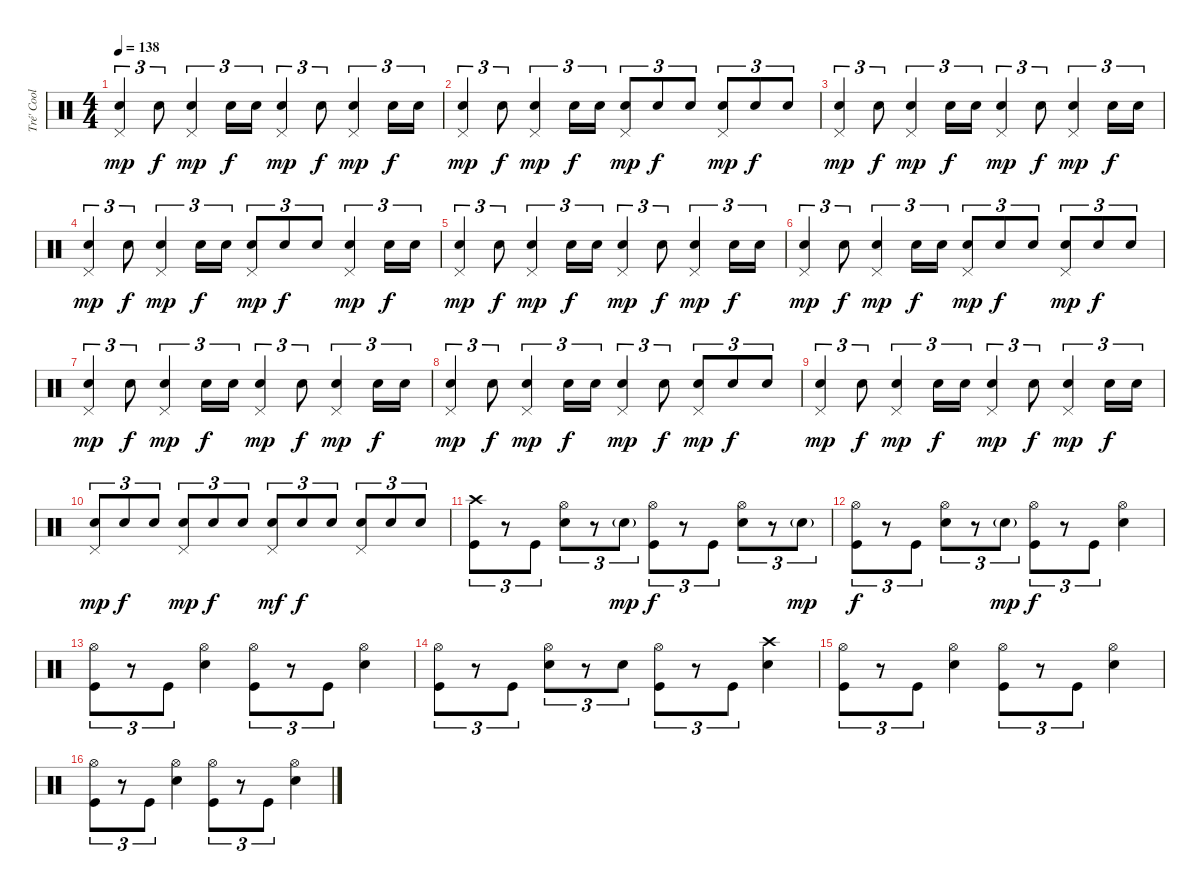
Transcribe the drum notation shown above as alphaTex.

\track ("Tré' Cool" "Tré' Cool") {instrument percussion}
\staff {score}
\articulation defaults
\ts (4 4)
\tempo 138
\clef neutral
\ks c
("Electric Snare (hit)" "Pedal Hi-Hat (hit)").4{tu (3 2) dy mp} "Electric Snare (hit)".8{tu (3 2) dy f} ("Electric Snare (hit)" "Pedal Hi-Hat (hit)").4{tu (3 2) dy mp} "Electric Snare (hit)".16{tu (3 2) dy f} "Electric Snare (hit)".16{tu (3 2)} ("Electric Snare (hit)" "Pedal Hi-Hat (hit)").4{tu (3 2) dy mp} "Electric Snare (hit)".8{tu (3 2) dy f} ("Electric Snare (hit)" "Pedal Hi-Hat (hit)").4{tu (3 2) dy mp} "Electric Snare (hit)".16{tu (3 2) dy f} "Electric Snare (hit)".16{tu (3 2)} |
("Electric Snare (hit)" "Pedal Hi-Hat (hit)").4{tu (3 2) dy mp} "Electric Snare (hit)".8{tu (3 2) dy f} ("Electric Snare (hit)" "Pedal Hi-Hat (hit)").4{tu (3 2) dy mp} "Electric Snare (hit)".16{tu (3 2) dy f} "Electric Snare (hit)".16{tu (3 2)} ("Electric Snare (hit)" "Pedal Hi-Hat (hit)").8{tu (3 2) dy mp} "Electric Snare (hit)".8{tu (3 2) dy f} "Electric Snare (hit)".8{tu (3 2)} ("Electric Snare (hit)" "Pedal Hi-Hat (hit)").8{tu (3 2) dy mp} "Electric Snare (hit)".8{tu (3 2) dy f} "Electric Snare (hit)".8{tu (3 2)} |
("Electric Snare (hit)" "Pedal Hi-Hat (hit)").4{tu (3 2) dy mp} "Electric Snare (hit)".8{tu (3 2) dy f} ("Electric Snare (hit)" "Pedal Hi-Hat (hit)").4{tu (3 2) dy mp} "Electric Snare (hit)".16{tu (3 2) dy f} "Electric Snare (hit)".16{tu (3 2)} ("Electric Snare (hit)" "Pedal Hi-Hat (hit)").4{tu (3 2) dy mp} "Electric Snare (hit)".8{tu (3 2) dy f} ("Electric Snare (hit)" "Pedal Hi-Hat (hit)").4{tu (3 2) dy mp} "Electric Snare (hit)".16{tu (3 2) dy f} "Electric Snare (hit)".16{tu (3 2)} |
("Electric Snare (hit)" "Pedal Hi-Hat (hit)").4{tu (3 2) dy mp} "Electric Snare (hit)".8{tu (3 2) dy f} ("Electric Snare (hit)" "Pedal Hi-Hat (hit)").4{tu (3 2) dy mp} "Electric Snare (hit)".16{tu (3 2) dy f} "Electric Snare (hit)".16{tu (3 2)} ("Electric Snare (hit)" "Pedal Hi-Hat (hit)").8{tu (3 2) dy mp} "Electric Snare (hit)".8{tu (3 2) dy f} "Electric Snare (hit)".8{tu (3 2)} ("Electric Snare (hit)" "Pedal Hi-Hat (hit)").4{tu (3 2) dy mp} "Electric Snare (hit)".16{tu (3 2) dy f} "Electric Snare (hit)".16{tu (3 2)} |
("Electric Snare (hit)" "Pedal Hi-Hat (hit)").4{tu (3 2) dy mp} "Electric Snare (hit)".8{tu (3 2) dy f} ("Electric Snare (hit)" "Pedal Hi-Hat (hit)").4{tu (3 2) dy mp} "Electric Snare (hit)".16{tu (3 2) dy f} "Electric Snare (hit)".16{tu (3 2)} ("Electric Snare (hit)" "Pedal Hi-Hat (hit)").4{tu (3 2) dy mp} "Electric Snare (hit)".8{tu (3 2) dy f} ("Electric Snare (hit)" "Pedal Hi-Hat (hit)").4{tu (3 2) dy mp} "Electric Snare (hit)".16{tu (3 2) dy f} "Electric Snare (hit)".16{tu (3 2)} |
("Electric Snare (hit)" "Pedal Hi-Hat (hit)").4{tu (3 2) dy mp} "Electric Snare (hit)".8{tu (3 2) dy f} ("Electric Snare (hit)" "Pedal Hi-Hat (hit)").4{tu (3 2) dy mp} "Electric Snare (hit)".16{tu (3 2) dy f} "Electric Snare (hit)".16{tu (3 2)} ("Electric Snare (hit)" "Pedal Hi-Hat (hit)").8{tu (3 2) dy mp} "Electric Snare (hit)".8{tu (3 2) dy f} "Electric Snare (hit)".8{tu (3 2)} ("Electric Snare (hit)" "Pedal Hi-Hat (hit)").8{tu (3 2) dy mp} "Electric Snare (hit)".8{tu (3 2) dy f} "Electric Snare (hit)".8{tu (3 2)} |
("Electric Snare (hit)" "Pedal Hi-Hat (hit)").4{tu (3 2) dy mp} "Electric Snare (hit)".8{tu (3 2) dy f} ("Electric Snare (hit)" "Pedal Hi-Hat (hit)").4{tu (3 2) dy mp} "Electric Snare (hit)".16{tu (3 2) dy f} "Electric Snare (hit)".16{tu (3 2)} ("Electric Snare (hit)" "Pedal Hi-Hat (hit)").4{tu (3 2) dy mp} "Electric Snare (hit)".8{tu (3 2) dy f} ("Electric Snare (hit)" "Pedal Hi-Hat (hit)").4{tu (3 2) dy mp} "Electric Snare (hit)".16{tu (3 2) dy f} "Electric Snare (hit)".16{tu (3 2)} |
("Electric Snare (hit)" "Pedal Hi-Hat (hit)").4{tu (3 2) dy mp} "Electric Snare (hit)".8{tu (3 2) dy f} ("Electric Snare (hit)" "Pedal Hi-Hat (hit)").4{tu (3 2) dy mp} "Electric Snare (hit)".16{tu (3 2) dy f} "Electric Snare (hit)".16{tu (3 2)} ("Electric Snare (hit)" "Pedal Hi-Hat (hit)").4{tu (3 2) dy mp} "Electric Snare (hit)".8{tu (3 2) dy f} ("Electric Snare (hit)" "Pedal Hi-Hat (hit)").8{tu (3 2) dy mp} "Electric Snare (hit)".8{tu (3 2) dy f} "Electric Snare (hit)".8{tu (3 2)} |
("Electric Snare (hit)" "Pedal Hi-Hat (hit)").4{tu (3 2) dy mp} "Electric Snare (hit)".8{tu (3 2) dy f} ("Electric Snare (hit)" "Pedal Hi-Hat (hit)").4{tu (3 2) dy mp} "Electric Snare (hit)".16{tu (3 2) dy f} "Electric Snare (hit)".16{tu (3 2)} ("Electric Snare (hit)" "Pedal Hi-Hat (hit)").4{tu (3 2) dy mp} "Electric Snare (hit)".8{tu (3 2) dy f} ("Electric Snare (hit)" "Pedal Hi-Hat (hit)").4{tu (3 2) dy mp} "Electric Snare (hit)".16{tu (3 2) dy f} "Electric Snare (hit)".16{tu (3 2)} |
("Electric Snare (hit)" "Pedal Hi-Hat (hit)").8{tu (3 2) dy mp} "Electric Snare (hit)".8{tu (3 2) dy f} "Electric Snare (hit)".8{tu (3 2)} ("Electric Snare (hit)" "Pedal Hi-Hat (hit)").8{tu (3 2) dy mp} "Electric Snare (hit)".8{tu (3 2) dy f} "Electric Snare (hit)".8{tu (3 2)} ("Electric Snare (hit)" "Pedal Hi-Hat (hit)").8{tu (3 2) dy mf} "Electric Snare (hit)".8{tu (3 2) dy f} "Electric Snare (hit)".8{tu (3 2)} ("Electric Snare (hit)" "Pedal Hi-Hat (hit)").8{tu (3 2)} "Electric Snare (hit)".8{tu (3 2)} "Electric Snare (hit)".8{tu (3 2)} |
("Crash high (hit)" "Kick (hit)").8{tu (3 2)} r.8{tu (3 2)} "Kick (hit)".8{tu (3 2)} ("Hi-Hat (open)" "Electric Snare (hit)").8{tu (3 2)} r.8{tu (3 2)} "Electric Snare (hit)"{g}.8{tu (3 2) dy mp} ("Hi-Hat (open)" "Kick (hit)").8{tu (3 2) dy f} r.8{tu (3 2)} "Kick (hit)".8{tu (3 2)} ("Hi-Hat (open)" "Electric Snare (hit)").8{tu (3 2)} r.8{tu (3 2)} "Electric Snare (hit)"{g}.8{tu (3 2) dy mp} |
("Hi-Hat (open)" "Kick (hit)").8{tu (3 2) dy f} r.8{tu (3 2)} "Kick (hit)".8{tu (3 2)} ("Hi-Hat (open)" "Electric Snare (hit)").8{tu (3 2)} r.8{tu (3 2)} "Electric Snare (hit)"{g}.8{tu (3 2) dy mp} ("Hi-Hat (open)" "Kick (hit)").8{tu (3 2) dy f} r.8{tu (3 2)} "Kick (hit)".8{tu (3 2)} ("Hi-Hat (open)" "Electric Snare (hit)").4 |
("Hi-Hat (open)" "Kick (hit)").8{tu (3 2)} r.8{tu (3 2)} "Kick (hit)".8{tu (3 2)} ("Hi-Hat (open)" "Electric Snare (hit)").4 ("Hi-Hat (open)" "Kick (hit)").8{tu (3 2)} r.8{tu (3 2)} "Kick (hit)".8{tu (3 2)} ("Hi-Hat (open)" "Electric Snare (hit)").4 |
("Hi-Hat (open)" "Kick (hit)").8{tu (3 2)} r.8{tu (3 2)} "Kick (hit)".8{tu (3 2)} ("Hi-Hat (open)" "Electric Snare (hit)").8{tu (3 2)} r.8{tu (3 2)} "Electric Snare (hit)".8{tu (3 2)} ("Hi-Hat (open)" "Kick (hit)").8{tu (3 2)} r.8{tu (3 2)} "Kick (hit)".8{tu (3 2)} ("Crash high (hit)" "Electric Snare (hit)").4 |
("Hi-Hat (open)" "Kick (hit)").8{tu (3 2)} r.8{tu (3 2)} "Kick (hit)".8{tu (3 2)} ("Hi-Hat (open)" "Electric Snare (hit)").4 ("Hi-Hat (open)" "Kick (hit)").8{tu (3 2)} r.8{tu (3 2)} "Kick (hit)".8{tu (3 2)} ("Hi-Hat (open)" "Electric Snare (hit)").4 |
("Hi-Hat (open)" "Kick (hit)").8{tu (3 2)} r.8{tu (3 2)} "Kick (hit)".8{tu (3 2)} ("Hi-Hat (open)" "Electric Snare (hit)").4 ("Hi-Hat (open)" "Kick (hit)").8{tu (3 2)} r.8{tu (3 2)} "Kick (hit)".8{tu (3 2)} ("Hi-Hat (open)" "Electric Snare (hit)").4
